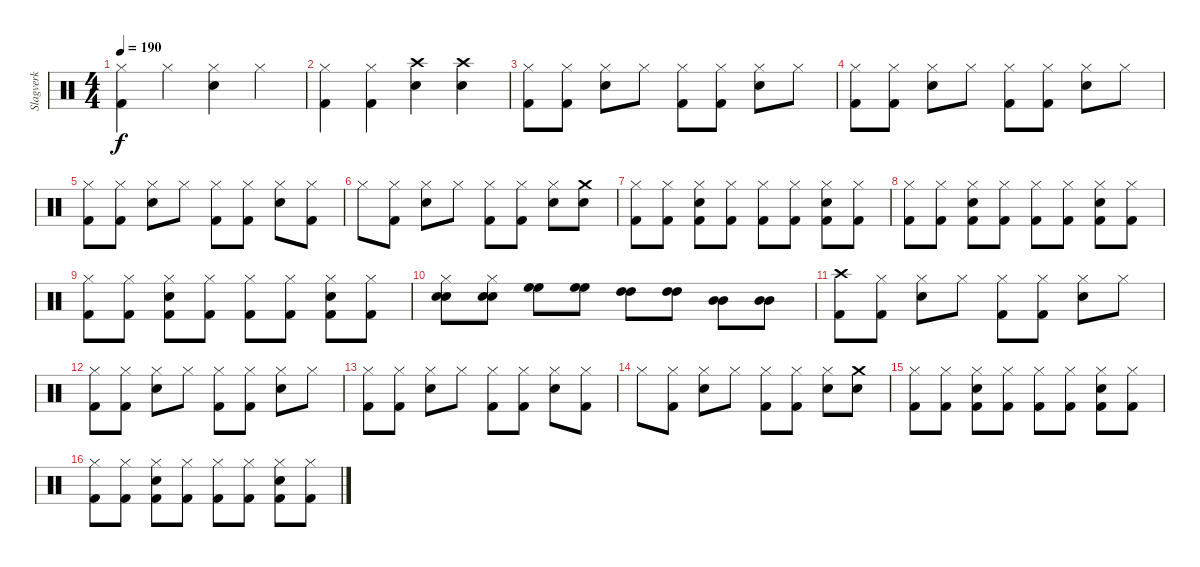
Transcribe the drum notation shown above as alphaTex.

\track ("Slagverk" "Slagverk") {instrument percussion}
\staff {score}
\articulation defaults
\ts (4 4)
\tempo 190
\clef neutral
\ks c
("Hi-Hat (closed)" "Kick (hit) 2").4{dy f} "Hi-Hat (closed)".4 ("Hi-Hat (closed)" "Snare (hit) 2").4 "Hi-Hat (closed)".4 |
("Hi-Hat (closed)" "Kick (hit) 2").4 ("Hi-Hat (closed)" "Kick (hit) 2").4 ("Crash high (hit)" "Snare (hit) 2").4 ("Crash high (hit)" "Snare (hit) 2").4 |
("Hi-Hat (closed)" "Kick (hit) 2").8 ("Hi-Hat (closed)" "Kick (hit) 2").8 ("Hi-Hat (closed)" "Snare (hit) 2").8 "Hi-Hat (closed)".8 ("Hi-Hat (closed)" "Kick (hit) 2").8 ("Hi-Hat (closed)" "Kick (hit) 2").8 ("Hi-Hat (closed)" "Snare (hit) 2").8 "Hi-Hat (closed)".8 |
("Hi-Hat (closed)" "Kick (hit) 2").8 ("Hi-Hat (closed)" "Kick (hit) 2").8 ("Hi-Hat (closed)" "Snare (hit) 2").8 "Hi-Hat (closed)".8 ("Hi-Hat (closed)" "Kick (hit) 2").8 ("Hi-Hat (closed)" "Kick (hit) 2").8 ("Hi-Hat (closed)" "Snare (hit) 2").8 "Hi-Hat (closed)".8 |
("Hi-Hat (closed)" "Kick (hit) 2").8 ("Hi-Hat (closed)" "Kick (hit) 2").8 ("Hi-Hat (closed)" "Snare (hit) 2").8 "Hi-Hat (closed)".8 ("Hi-Hat (closed)" "Kick (hit) 2").8 ("Hi-Hat (closed)" "Kick (hit) 2").8 ("Hi-Hat (closed)" "Snare (hit) 2").8 ("Hi-Hat (closed)" "Kick (hit) 2").8 |
"Hi-Hat (closed)".8 ("Hi-Hat (closed)" "Kick (hit) 2").8 ("Hi-Hat (closed)" "Snare (hit) 2").8 "Hi-Hat (closed)".8 ("Hi-Hat (closed)" "Kick (hit) 2").8 ("Hi-Hat (closed)" "Kick (hit) 2").8 ("Hi-Hat (closed)" "Snare (hit) 2").8 ("Crash medium (hit)" "Snare (hit) 2").8 |
("Hi-Hat (closed)" "Kick (hit) 2").8 ("Hi-Hat (closed)" "Kick (hit) 2").8 ("Hi-Hat (closed)" "Snare (hit) 2" "Kick (hit) 2").8 ("Hi-Hat (closed)" "Kick (hit) 2").8 ("Hi-Hat (closed)" "Kick (hit) 2").8 ("Hi-Hat (closed)" "Kick (hit) 2").8 ("Hi-Hat (closed)" "Snare (hit) 2" "Kick (hit) 2").8 ("Hi-Hat (closed)" "Kick (hit) 2").8 |
("Hi-Hat (closed)" "Kick (hit) 2").8 ("Hi-Hat (closed)" "Kick (hit) 2").8 ("Hi-Hat (closed)" "Snare (hit) 2" "Kick (hit) 2").8 ("Hi-Hat (closed)" "Kick (hit) 2").8 ("Hi-Hat (closed)" "Kick (hit) 2").8 ("Hi-Hat (closed)" "Kick (hit) 2").8 ("Hi-Hat (closed)" "Snare (hit) 2" "Kick (hit) 2").8 ("Hi-Hat (closed)" "Kick (hit) 2").8 |
("Hi-Hat (closed)" "Kick (hit) 2").8 ("Hi-Hat (closed)" "Kick (hit) 2").8 ("Hi-Hat (closed)" "Snare (hit) 2" "Kick (hit) 2").8 ("Hi-Hat (closed)" "Kick (hit) 2").8 ("Hi-Hat (closed)" "Kick (hit) 2").8 ("Hi-Hat (closed)" "Kick (hit) 2").8 ("Hi-Hat (closed)" "Snare (hit) 2" "Kick (hit) 2").8 ("Hi-Hat (closed)" "Kick (hit) 2").8 |
("Hi-Hat (closed)" "Snare (hit) 2" "Snare (hit) 2").8 ("Hi-Hat (closed)" "Snare (hit) 2" "Snare (hit) 2").8 ("High Floor Tom (hit)" "High Floor Tom (hit)").8 ("High Floor Tom (hit)" "High Floor Tom (hit)").8 ("High Tom (hit)" "High Tom (hit)").8 ("High Tom (hit)" "High Tom (hit)").8 ("Mid Tom (hit)" "Mid Tom (hit)").8 ("Mid Tom (hit)" "Mid Tom (hit)").8 |
("Crash high (hit)" "Kick (hit) 2").8 ("Hi-Hat (closed)" "Kick (hit) 2").8 ("Hi-Hat (closed)" "Snare (hit) 2").8 "Hi-Hat (closed)".8 ("Hi-Hat (closed)" "Kick (hit) 2").8 ("Hi-Hat (closed)" "Kick (hit) 2").8 ("Hi-Hat (closed)" "Snare (hit) 2").8 "Hi-Hat (closed)".8 |
("Hi-Hat (closed)" "Kick (hit) 2").8 ("Hi-Hat (closed)" "Kick (hit) 2").8 ("Hi-Hat (closed)" "Snare (hit) 2").8 "Hi-Hat (closed)".8 ("Hi-Hat (closed)" "Kick (hit) 2").8 ("Hi-Hat (closed)" "Kick (hit) 2").8 ("Hi-Hat (closed)" "Snare (hit) 2").8 "Hi-Hat (closed)".8 |
("Hi-Hat (closed)" "Kick (hit) 2").8 ("Hi-Hat (closed)" "Kick (hit) 2").8 ("Hi-Hat (closed)" "Snare (hit) 2").8 "Hi-Hat (closed)".8 ("Hi-Hat (closed)" "Kick (hit) 2").8 ("Hi-Hat (closed)" "Kick (hit) 2").8 ("Hi-Hat (closed)" "Snare (hit) 2").8 ("Hi-Hat (closed)" "Kick (hit) 2").8 |
"Hi-Hat (closed)".8 ("Hi-Hat (closed)" "Kick (hit) 2").8 ("Hi-Hat (closed)" "Snare (hit) 2").8 "Hi-Hat (closed)".8 ("Hi-Hat (closed)" "Kick (hit) 2").8 ("Hi-Hat (closed)" "Kick (hit) 2").8 ("Hi-Hat (closed)" "Snare (hit) 2").8 ("Crash medium (hit)" "Snare (hit) 2").8 |
("Hi-Hat (closed)" "Kick (hit) 2").8 ("Hi-Hat (closed)" "Kick (hit) 2").8 ("Hi-Hat (closed)" "Snare (hit) 2" "Kick (hit) 2").8 ("Hi-Hat (closed)" "Kick (hit) 2").8 ("Hi-Hat (closed)" "Kick (hit) 2").8 ("Hi-Hat (closed)" "Kick (hit) 2").8 ("Hi-Hat (closed)" "Snare (hit) 2" "Kick (hit) 2").8 ("Hi-Hat (closed)" "Kick (hit) 2").8 |
("Hi-Hat (closed)" "Kick (hit) 2").8 ("Hi-Hat (closed)" "Kick (hit) 2").8 ("Hi-Hat (closed)" "Snare (hit) 2" "Kick (hit) 2").8 ("Hi-Hat (closed)" "Kick (hit) 2").8 ("Hi-Hat (closed)" "Kick (hit) 2").8 ("Hi-Hat (closed)" "Kick (hit) 2").8 ("Hi-Hat (closed)" "Snare (hit) 2" "Kick (hit) 2").8 ("Hi-Hat (closed)" "Kick (hit) 2").8
